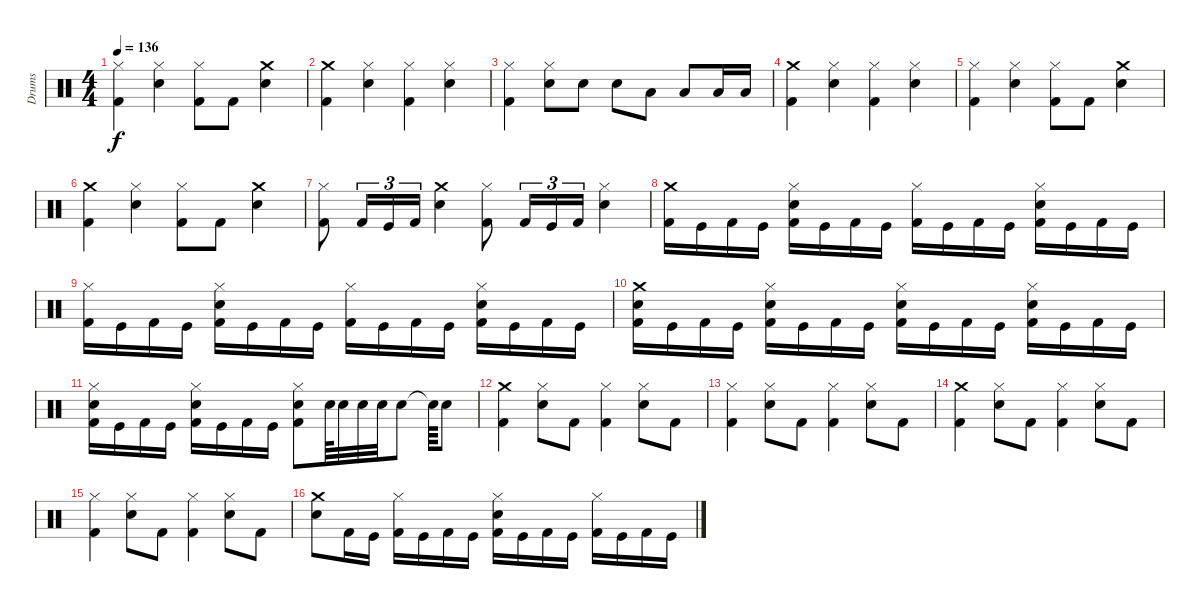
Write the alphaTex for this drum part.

\track ("Drums" "Drums") {instrument percussion}
\staff {score}
\articulation defaults
\ts (4 4)
\tempo 136
\clef neutral
\ks c
("Hi-Hat (closed)" "Kick (hit) 2").4{dy f} ("Snare (hit) 2" "Hi-Hat (closed)").4 ("Kick (hit) 2" "Hi-Hat (closed)").8 "Kick (hit) 2".8 ("Crash medium (hit)" "Snare (hit) 2").4 |
("Kick (hit) 2" "Crash medium (hit)").4 ("Hi-Hat (closed)" "Snare (hit) 2").4 ("Kick (hit) 2" "Hi-Hat (closed)").4 ("Snare (hit) 2" "Hi-Hat (closed)").4 |
("Kick (hit) 2" "Hi-Hat (closed)").4 ("Snare (hit) 2" "Hi-Hat (closed)").8 "Snare (hit) 2".8 "Snare (hit) 2".8 "Low Tom (hit)".8 "Low Tom (hit)".8 "Low Tom (hit)".16 "Low Tom (hit)".16 |
("Crash medium (hit)" "Kick (hit) 2").4 ("Snare (hit) 2" "Hi-Hat (closed)").4 ("Hi-Hat (closed)" "Kick (hit) 2").4 ("Snare (hit) 2" "Hi-Hat (closed)").4 |
("Hi-Hat (closed)" "Kick (hit) 2").4 ("Snare (hit) 2" "Hi-Hat (closed)").4 ("Kick (hit) 2" "Hi-Hat (closed)").8 "Kick (hit) 2".8 ("Crash medium (hit)" "Snare (hit) 2").4 |
("Kick (hit) 2" "Crash medium (hit)").4 ("Hi-Hat (closed)" "Snare (hit) 2").4 ("Kick (hit) 2" "Hi-Hat (closed)").8 "Kick (hit) 2".8 ("Crash medium (hit)" "Snare (hit) 2").4 |
("Hi-Hat (closed)" "Kick (hit) 2").8 "Kick (hit) 2".16{tu (3 2)} "Kick (hit)".16{tu (3 2)} "Kick (hit) 2".16{tu (3 2)} ("Crash medium (hit)" "Snare (hit) 2").4 ("Hi-Hat (closed)" "Kick (hit) 2").8 "Kick (hit) 2".16{tu (3 2)} "Kick (hit)".16{tu (3 2)} "Kick (hit) 2".16{tu (3 2)} ("Hi-Hat (closed)" "Snare (hit) 2").4 |
("Crash medium (hit)" "Kick (hit) 2").16 "Kick (hit)".16 "Kick (hit) 2".16 "Kick (hit)".16 ("Snare (hit) 2" "Hi-Hat (closed)" "Kick (hit) 2").16 "Kick (hit)".16 "Kick (hit) 2".16 "Kick (hit)".16 ("Hi-Hat (closed)" "Kick (hit) 2").16 "Kick (hit)".16 "Kick (hit) 2".16 "Kick (hit)".16 ("Snare (hit) 2" "Hi-Hat (closed)" "Kick (hit) 2").16 "Kick (hit)".16 "Kick (hit) 2".16 "Kick (hit)".16 |
("Hi-Hat (closed)" "Kick (hit) 2").16 "Kick (hit)".16 "Kick (hit) 2".16 "Kick (hit)".16 ("Snare (hit) 2" "Hi-Hat (closed)" "Kick (hit) 2").16 "Kick (hit)".16 "Kick (hit) 2".16 "Kick (hit)".16 ("Hi-Hat (closed)" "Kick (hit) 2").16 "Kick (hit)".16 "Kick (hit) 2".16 "Kick (hit)".16 ("Snare (hit) 2" "Hi-Hat (closed)" "Kick (hit) 2").16 "Kick (hit)".16 "Kick (hit) 2".16 "Kick (hit)".16 |
("Snare (hit) 2" "Crash medium (hit)" "Kick (hit) 2").16 "Kick (hit)".16 "Kick (hit) 2".16 "Kick (hit)".16 ("Hi-Hat (closed)" "Snare (hit) 2" "Kick (hit) 2").16 "Kick (hit)".16 "Kick (hit) 2".16 "Kick (hit)".16 ("Hi-Hat (closed)" "Snare (hit) 2" "Kick (hit) 2").16 "Kick (hit)".16 "Kick (hit) 2".16 "Kick (hit)".16 ("Snare (hit) 2" "Hi-Hat (closed)" "Kick (hit) 2").16 "Kick (hit)".16 "Kick (hit) 2".16 "Kick (hit)".16 |
("Hi-Hat (closed)" "Snare (hit) 2" "Kick (hit) 2").16 "Kick (hit)".16 "Kick (hit) 2".16 "Kick (hit)".16 ("Snare (hit) 2" "Hi-Hat (closed)" "Kick (hit) 2").16 "Kick (hit)".16 "Kick (hit) 2".16 "Kick (hit)".16 ("Kick (hit) 2" "Hi-Hat (closed)" "Snare (hit) 2").8 "Snare (hit) 2".64 "Snare (hit) 2".32 "Snare (hit) 2".32 "Snare (hit) 2".32 "Snare (hit) 2".8 "Snare (hit)"{t}.64 "Snare (hit) 2".8 |
("Kick (hit) 2" "Crash medium (hit)").4 ("Hi-Hat (closed)" "Snare (hit) 2").8 "Kick (hit) 2".8 ("Kick (hit) 2" "Hi-Hat (closed)").4 ("Hi-Hat (closed)" "Snare (hit) 2").8 "Kick (hit) 2".8 |
("Kick (hit) 2" "Hi-Hat (closed)").4 ("Hi-Hat (closed)" "Snare (hit) 2").8 "Kick (hit) 2".8 ("Kick (hit) 2" "Hi-Hat (closed)").4 ("Hi-Hat (closed)" "Snare (hit) 2").8 "Kick (hit) 2".8 |
("Kick (hit) 2" "Crash medium (hit)").4 ("Hi-Hat (closed)" "Snare (hit) 2").8 "Kick (hit) 2".8 ("Kick (hit) 2" "Hi-Hat (closed)").4 ("Hi-Hat (closed)" "Snare (hit) 2").8 "Kick (hit) 2".8 |
("Kick (hit) 2" "Hi-Hat (closed)").4 ("Hi-Hat (closed)" "Snare (hit) 2").8 "Kick (hit) 2".8 ("Kick (hit) 2" "Hi-Hat (closed)").4 ("Hi-Hat (closed)" "Snare (hit) 2").8 "Kick (hit) 2".8 |
("Snare (hit) 2" "Crash medium (hit)").8 "Kick (hit) 2".16 "Kick (hit)".16 ("Hi-Hat (closed)" "Kick (hit) 2").16 "Kick (hit)".16 "Kick (hit) 2".16 "Kick (hit)".16 ("Snare (hit) 2" "Hi-Hat (closed)" "Kick (hit) 2").16 "Kick (hit)".16 "Kick (hit) 2".16 "Kick (hit)".16 ("Hi-Hat (closed)" "Kick (hit) 2").16 "Kick (hit)".16 "Kick (hit) 2".16 "Kick (hit)".16
